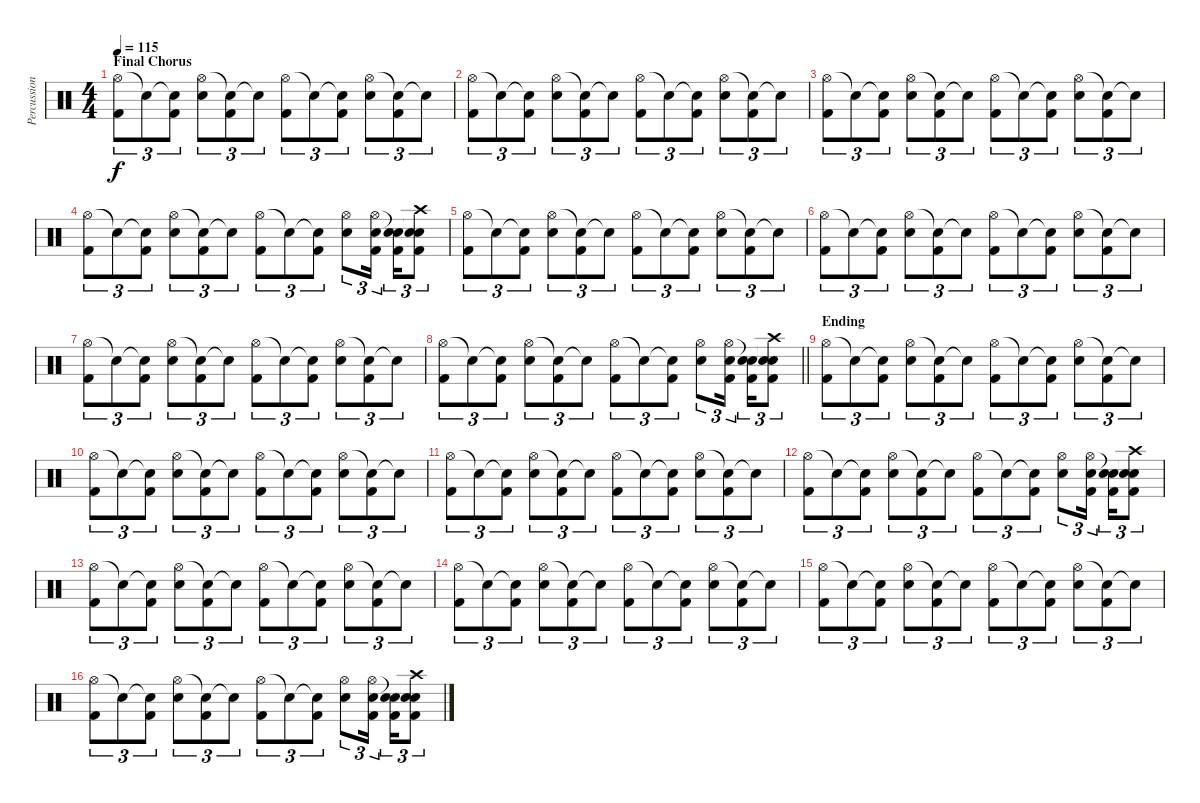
\track ("Percussion" "Percussion") {instrument percussion}
\staff {score}
\articulation defaults
\ts (4 4)
\section ("" "Final Chorus")
\tempo 115
\clef neutral
\ks c
("Hi-Hat (open)" "Kick (hit) 2").8{tu (3 2) dy f} "Snare (hit)"{t}.8{tu (3 2)} ("Snare (hit)"{t} "Kick (hit) 2").8{tu (3 2)} ("Hi-Hat (open)" "Electric Snare (hit)").8{tu (3 2)} ("Snare (hit)"{t} "Kick (hit) 2").8{tu (3 2)} "Snare (hit)"{t}.8{tu (3 2)} ("Hi-Hat (open)" "Kick (hit) 2").8{tu (3 2)} "Snare (hit)"{t}.8{tu (3 2)} ("Snare (hit)"{t} "Kick (hit) 2").8{tu (3 2)} ("Hi-Hat (open)" "Electric Snare (hit)").8{tu (3 2)} ("Snare (hit)"{t} "Kick (hit) 2").8{tu (3 2)} "Snare (hit)"{t}.8{tu (3 2)} |
("Hi-Hat (open)" "Kick (hit) 2").8{tu (3 2)} "Snare (hit)"{t}.8{tu (3 2)} ("Snare (hit)"{t} "Kick (hit) 2").8{tu (3 2)} ("Hi-Hat (open)" "Electric Snare (hit)").8{tu (3 2)} ("Snare (hit)"{t} "Kick (hit) 2").8{tu (3 2)} "Snare (hit)"{t}.8{tu (3 2)} ("Hi-Hat (open)" "Kick (hit) 2").8{tu (3 2)} "Snare (hit)"{t}.8{tu (3 2)} ("Snare (hit)"{t} "Kick (hit) 2").8{tu (3 2)} ("Hi-Hat (open)" "Electric Snare (hit)").8{tu (3 2)} ("Snare (hit)"{t} "Kick (hit) 2").8{tu (3 2)} "Snare (hit)"{t}.8{tu (3 2)} |
("Hi-Hat (open)" "Kick (hit) 2").8{tu (3 2)} "Snare (hit)"{t}.8{tu (3 2)} ("Snare (hit)"{t} "Kick (hit) 2").8{tu (3 2)} ("Hi-Hat (open)" "Electric Snare (hit)").8{tu (3 2)} ("Snare (hit)"{t} "Kick (hit) 2").8{tu (3 2)} "Snare (hit)"{t}.8{tu (3 2)} ("Hi-Hat (open)" "Kick (hit) 2").8{tu (3 2)} "Snare (hit)"{t}.8{tu (3 2)} ("Snare (hit)"{t} "Kick (hit) 2").8{tu (3 2)} ("Hi-Hat (open)" "Electric Snare (hit)").8{tu (3 2)} ("Snare (hit)"{t} "Kick (hit) 2").8{tu (3 2)} "Snare (hit)"{t}.8{tu (3 2)} |
("Hi-Hat (open)" "Kick (hit) 2").8{tu (3 2)} "Snare (hit)"{t}.8{tu (3 2)} ("Snare (hit)"{t} "Kick (hit) 2").8{tu (3 2)} ("Hi-Hat (open)" "Electric Snare (hit)").8{tu (3 2)} ("Snare (hit)"{t} "Kick (hit) 2").8{tu (3 2)} "Snare (hit)"{t}.8{tu (3 2)} ("Hi-Hat (open)" "Kick (hit) 2").8{tu (3 2)} "Snare (hit)"{t}.8{tu (3 2)} ("Snare (hit)"{t} "Kick (hit) 2").8{tu (3 2)} ("Hi-Hat (open)" "Electric Snare (hit)").8{tu (3 2)} ("Hi-Hat (open)" "Electric Snare (hit)" "Kick (hit) 2").16{tu (3 2) beam splitsecondary} ("Snare (hit)"{t} "Electric Snare (hit)" "Kick (hit) 2").16{tu (3 2)} ("Snare (hit)"{t} "Crash high (hit)" "Electric Snare (hit)" "Kick (hit) 2").8{tu (3 2)} |
("Hi-Hat (open)" "Kick (hit) 2").8{tu (3 2)} "Snare (hit)"{t}.8{tu (3 2)} ("Snare (hit)"{t} "Kick (hit) 2").8{tu (3 2)} ("Hi-Hat (open)" "Electric Snare (hit)").8{tu (3 2)} ("Snare (hit)"{t} "Kick (hit) 2").8{tu (3 2)} "Snare (hit)"{t}.8{tu (3 2)} ("Hi-Hat (open)" "Kick (hit) 2").8{tu (3 2)} "Snare (hit)"{t}.8{tu (3 2)} ("Snare (hit)"{t} "Kick (hit) 2").8{tu (3 2)} ("Hi-Hat (open)" "Electric Snare (hit)").8{tu (3 2)} ("Snare (hit)"{t} "Kick (hit) 2").8{tu (3 2)} "Snare (hit)"{t}.8{tu (3 2)} |
("Hi-Hat (open)" "Kick (hit) 2").8{tu (3 2)} "Snare (hit)"{t}.8{tu (3 2)} ("Snare (hit)"{t} "Kick (hit) 2").8{tu (3 2)} ("Hi-Hat (open)" "Electric Snare (hit)").8{tu (3 2)} ("Snare (hit)"{t} "Kick (hit) 2").8{tu (3 2)} "Snare (hit)"{t}.8{tu (3 2)} ("Hi-Hat (open)" "Kick (hit) 2").8{tu (3 2)} "Snare (hit)"{t}.8{tu (3 2)} ("Snare (hit)"{t} "Kick (hit) 2").8{tu (3 2)} ("Hi-Hat (open)" "Electric Snare (hit)").8{tu (3 2)} ("Snare (hit)"{t} "Kick (hit) 2").8{tu (3 2)} "Snare (hit)"{t}.8{tu (3 2)} |
("Hi-Hat (open)" "Kick (hit) 2").8{tu (3 2)} "Snare (hit)"{t}.8{tu (3 2)} ("Snare (hit)"{t} "Kick (hit) 2").8{tu (3 2)} ("Hi-Hat (open)" "Electric Snare (hit)").8{tu (3 2)} ("Snare (hit)"{t} "Kick (hit) 2").8{tu (3 2)} "Snare (hit)"{t}.8{tu (3 2)} ("Hi-Hat (open)" "Kick (hit) 2").8{tu (3 2)} "Snare (hit)"{t}.8{tu (3 2)} ("Snare (hit)"{t} "Kick (hit) 2").8{tu (3 2)} ("Hi-Hat (open)" "Electric Snare (hit)").8{tu (3 2)} ("Snare (hit)"{t} "Kick (hit) 2").8{tu (3 2)} "Snare (hit)"{t}.8{tu (3 2)} |
\barLineRight lightlight
("Hi-Hat (open)" "Kick (hit) 2").8{tu (3 2)} "Snare (hit)"{t}.8{tu (3 2)} ("Snare (hit)"{t} "Kick (hit) 2").8{tu (3 2)} ("Hi-Hat (open)" "Electric Snare (hit)").8{tu (3 2)} ("Snare (hit)"{t} "Kick (hit) 2").8{tu (3 2)} "Snare (hit)"{t}.8{tu (3 2)} ("Hi-Hat (open)" "Kick (hit) 2").8{tu (3 2)} "Snare (hit)"{t}.8{tu (3 2)} ("Snare (hit)"{t} "Kick (hit) 2").8{tu (3 2)} ("Hi-Hat (open)" "Electric Snare (hit)").8{tu (3 2)} ("Hi-Hat (open)" "Electric Snare (hit)" "Kick (hit) 2").16{tu (3 2) beam splitsecondary} ("Snare (hit)"{t} "Electric Snare (hit)" "Kick (hit) 2").16{tu (3 2)} ("Snare (hit)"{t} "Crash high (hit)" "Electric Snare (hit)" "Kick (hit) 2").8{tu (3 2)} |
\section ("" "Ending")
("Hi-Hat (open)" "Kick (hit) 2").8{tu (3 2)} "Snare (hit)"{t}.8{tu (3 2)} ("Snare (hit)"{t} "Kick (hit) 2").8{tu (3 2)} ("Hi-Hat (open)" "Electric Snare (hit)").8{tu (3 2)} ("Snare (hit)"{t} "Kick (hit) 2").8{tu (3 2)} "Snare (hit)"{t}.8{tu (3 2)} ("Hi-Hat (open)" "Kick (hit) 2").8{tu (3 2)} "Snare (hit)"{t}.8{tu (3 2)} ("Snare (hit)"{t} "Kick (hit) 2").8{tu (3 2)} ("Hi-Hat (open)" "Electric Snare (hit)").8{tu (3 2)} ("Snare (hit)"{t} "Kick (hit) 2").8{tu (3 2)} "Snare (hit)"{t}.8{tu (3 2)} |
("Hi-Hat (open)" "Kick (hit) 2").8{tu (3 2)} "Snare (hit)"{t}.8{tu (3 2)} ("Snare (hit)"{t} "Kick (hit) 2").8{tu (3 2)} ("Hi-Hat (open)" "Electric Snare (hit)").8{tu (3 2)} ("Snare (hit)"{t} "Kick (hit) 2").8{tu (3 2)} "Snare (hit)"{t}.8{tu (3 2)} ("Hi-Hat (open)" "Kick (hit) 2").8{tu (3 2)} "Snare (hit)"{t}.8{tu (3 2)} ("Snare (hit)"{t} "Kick (hit) 2").8{tu (3 2)} ("Hi-Hat (open)" "Electric Snare (hit)").8{tu (3 2)} ("Snare (hit)"{t} "Kick (hit) 2").8{tu (3 2)} "Snare (hit)"{t}.8{tu (3 2)} |
("Hi-Hat (open)" "Kick (hit) 2").8{tu (3 2)} "Snare (hit)"{t}.8{tu (3 2)} ("Snare (hit)"{t} "Kick (hit) 2").8{tu (3 2)} ("Hi-Hat (open)" "Electric Snare (hit)").8{tu (3 2)} ("Snare (hit)"{t} "Kick (hit) 2").8{tu (3 2)} "Snare (hit)"{t}.8{tu (3 2)} ("Hi-Hat (open)" "Kick (hit) 2").8{tu (3 2)} "Snare (hit)"{t}.8{tu (3 2)} ("Snare (hit)"{t} "Kick (hit) 2").8{tu (3 2)} ("Hi-Hat (open)" "Electric Snare (hit)").8{tu (3 2)} ("Snare (hit)"{t} "Kick (hit) 2").8{tu (3 2)} "Snare (hit)"{t}.8{tu (3 2)} |
("Hi-Hat (open)" "Kick (hit) 2").8{tu (3 2)} "Snare (hit)"{t}.8{tu (3 2)} ("Snare (hit)"{t} "Kick (hit) 2").8{tu (3 2)} ("Hi-Hat (open)" "Electric Snare (hit)").8{tu (3 2)} ("Snare (hit)"{t} "Kick (hit) 2").8{tu (3 2)} "Snare (hit)"{t}.8{tu (3 2)} ("Hi-Hat (open)" "Kick (hit) 2").8{tu (3 2)} "Snare (hit)"{t}.8{tu (3 2)} ("Snare (hit)"{t} "Kick (hit) 2").8{tu (3 2)} ("Hi-Hat (open)" "Electric Snare (hit)").8{tu (3 2)} ("Hi-Hat (open)" "Electric Snare (hit)" "Kick (hit) 2").16{tu (3 2) beam splitsecondary} ("Snare (hit)"{t} "Electric Snare (hit)" "Kick (hit) 2").16{tu (3 2)} ("Snare (hit)"{t} "Crash high (hit)" "Electric Snare (hit)" "Kick (hit) 2").8{tu (3 2)} |
("Hi-Hat (open)" "Kick (hit) 2").8{tu (3 2)} "Snare (hit)"{t}.8{tu (3 2)} ("Snare (hit)"{t} "Kick (hit) 2").8{tu (3 2)} ("Hi-Hat (open)" "Electric Snare (hit)").8{tu (3 2)} ("Snare (hit)"{t} "Kick (hit) 2").8{tu (3 2)} "Snare (hit)"{t}.8{tu (3 2)} ("Hi-Hat (open)" "Kick (hit) 2").8{tu (3 2)} "Snare (hit)"{t}.8{tu (3 2)} ("Snare (hit)"{t} "Kick (hit) 2").8{tu (3 2)} ("Hi-Hat (open)" "Electric Snare (hit)").8{tu (3 2)} ("Snare (hit)"{t} "Kick (hit) 2").8{tu (3 2)} "Snare (hit)"{t}.8{tu (3 2)} |
("Hi-Hat (open)" "Kick (hit) 2").8{tu (3 2)} "Snare (hit)"{t}.8{tu (3 2)} ("Snare (hit)"{t} "Kick (hit) 2").8{tu (3 2)} ("Hi-Hat (open)" "Electric Snare (hit)").8{tu (3 2)} ("Snare (hit)"{t} "Kick (hit) 2").8{tu (3 2)} "Snare (hit)"{t}.8{tu (3 2)} ("Hi-Hat (open)" "Kick (hit) 2").8{tu (3 2)} "Snare (hit)"{t}.8{tu (3 2)} ("Snare (hit)"{t} "Kick (hit) 2").8{tu (3 2)} ("Hi-Hat (open)" "Electric Snare (hit)").8{tu (3 2)} ("Snare (hit)"{t} "Kick (hit) 2").8{tu (3 2)} "Snare (hit)"{t}.8{tu (3 2)} |
("Hi-Hat (open)" "Kick (hit) 2").8{tu (3 2)} "Snare (hit)"{t}.8{tu (3 2)} ("Snare (hit)"{t} "Kick (hit) 2").8{tu (3 2)} ("Hi-Hat (open)" "Electric Snare (hit)").8{tu (3 2)} ("Snare (hit)"{t} "Kick (hit) 2").8{tu (3 2)} "Snare (hit)"{t}.8{tu (3 2)} ("Hi-Hat (open)" "Kick (hit) 2").8{tu (3 2)} "Snare (hit)"{t}.8{tu (3 2)} ("Snare (hit)"{t} "Kick (hit) 2").8{tu (3 2)} ("Hi-Hat (open)" "Electric Snare (hit)").8{tu (3 2)} ("Snare (hit)"{t} "Kick (hit) 2").8{tu (3 2)} "Snare (hit)"{t}.8{tu (3 2)} |
("Hi-Hat (open)" "Kick (hit) 2").8{tu (3 2)} "Snare (hit)"{t}.8{tu (3 2)} ("Snare (hit)"{t} "Kick (hit) 2").8{tu (3 2)} ("Hi-Hat (open)" "Electric Snare (hit)").8{tu (3 2)} ("Snare (hit)"{t} "Kick (hit) 2").8{tu (3 2)} "Snare (hit)"{t}.8{tu (3 2)} ("Hi-Hat (open)" "Kick (hit) 2").8{tu (3 2)} "Snare (hit)"{t}.8{tu (3 2)} ("Snare (hit)"{t} "Kick (hit) 2").8{tu (3 2)} ("Hi-Hat (open)" "Electric Snare (hit)").8{tu (3 2)} ("Hi-Hat (open)" "Electric Snare (hit)" "Kick (hit) 2").16{tu (3 2) beam splitsecondary} ("Snare (hit)"{t} "Electric Snare (hit)" "Kick (hit) 2").16{tu (3 2)} ("Snare (hit)"{t} "Crash high (hit)" "Electric Snare (hit)" "Kick (hit) 2").8{tu (3 2)}
